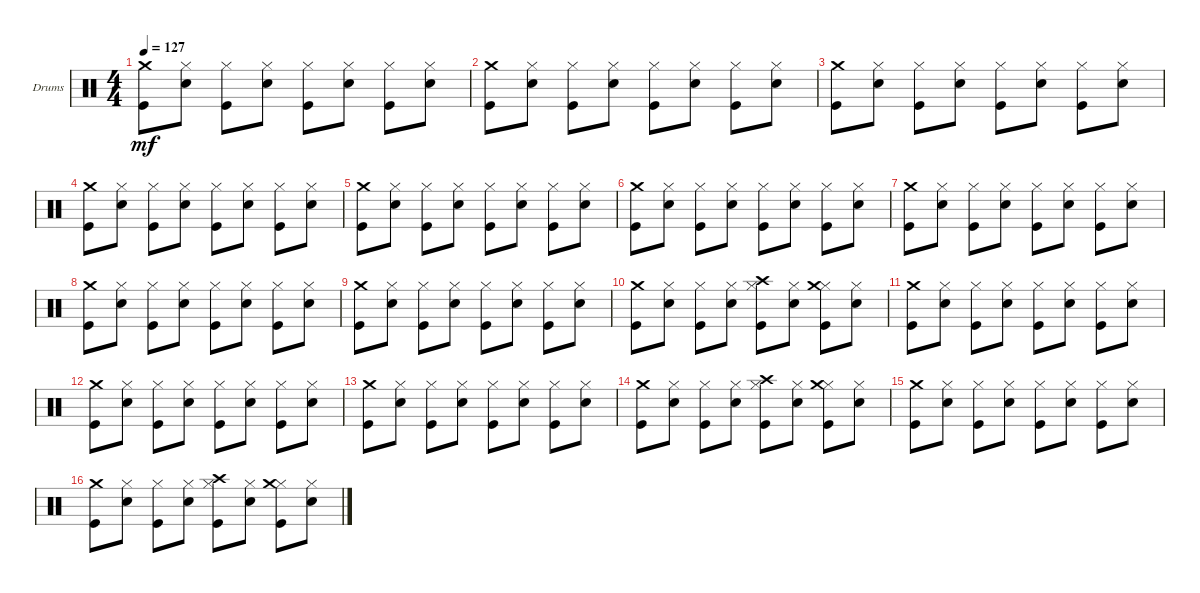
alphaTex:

\defaultSystemsLayout 4
\bracketExtendMode groupsimilarinstruments
\firstSystemTrackNameOrientation horizontal
\otherSystemsTrackNameOrientation horizontal
\track ("Е. Кулаков" "Drums") {instrument percussion}
\staff {score}
\articulation defaults
\ts (4 4)
\tempo 127
\clef neutral
\scale
0.333333
\ks c
("Kick (hit)" "Crash medium (hit)").8{dy mf} ("Snare (hit) 2" "Hi-Hat (closed)").8 ("Kick (hit)" "Hi-Hat (closed)").8 ("Snare (hit) 2" "Hi-Hat (closed)").8 ("Kick (hit)" "Hi-Hat (closed)").8 ("Snare (hit) 2" "Hi-Hat (closed)").8 ("Kick (hit)" "Hi-Hat (closed)").8 ("Snare (hit) 2" "Hi-Hat (closed)").8 |
\scale
0.333333 ("Kick (hit)" "Crash medium (hit)").8 ("Snare (hit) 2" "Hi-Hat (closed)").8 ("Kick (hit)" "Hi-Hat (closed)").8 ("Snare (hit) 2" "Hi-Hat (closed)").8 ("Kick (hit)" "Hi-Hat (closed)").8 ("Snare (hit) 2" "Hi-Hat (closed)").8 ("Kick (hit)" "Hi-Hat (closed)").8 ("Snare (hit) 2" "Hi-Hat (closed)").8 |
\scale
0.333333 ("Kick (hit)" "Crash medium (hit)").8 ("Snare (hit) 2" "Hi-Hat (closed)").8 ("Kick (hit)" "Hi-Hat (closed)").8 ("Snare (hit) 2" "Hi-Hat (closed)").8 ("Kick (hit)" "Hi-Hat (closed)").8 ("Snare (hit) 2" "Hi-Hat (closed)").8 ("Kick (hit)" "Hi-Hat (closed)").8 ("Snare (hit) 2" "Hi-Hat (closed)").8 |
\scale
0.333333 ("Kick (hit)" "Crash medium (hit)").8 ("Snare (hit) 2" "Hi-Hat (closed)").8 ("Kick (hit)" "Hi-Hat (closed)").8 ("Snare (hit) 2" "Hi-Hat (closed)").8 ("Kick (hit)" "Hi-Hat (closed)").8 ("Snare (hit) 2" "Hi-Hat (closed)").8 ("Kick (hit)" "Hi-Hat (closed)").8 ("Snare (hit) 2" "Hi-Hat (closed)").8 |
\scale
0.333333 ("Kick (hit)" "Crash medium (hit)").8 ("Snare (hit) 2" "Hi-Hat (closed)").8 ("Kick (hit)" "Hi-Hat (closed)").8 ("Snare (hit) 2" "Hi-Hat (closed)").8 ("Kick (hit)" "Hi-Hat (closed)").8 ("Snare (hit) 2" "Hi-Hat (closed)").8 ("Kick (hit)" "Hi-Hat (closed)").8 ("Snare (hit) 2" "Hi-Hat (closed)").8 |
\scale
0.333333 ("Kick (hit)" "Crash medium (hit)").8 ("Snare (hit) 2" "Hi-Hat (closed)").8 ("Kick (hit)" "Hi-Hat (closed)").8 ("Snare (hit) 2" "Hi-Hat (closed)").8 ("Kick (hit)" "Hi-Hat (closed)").8 ("Snare (hit) 2" "Hi-Hat (closed)").8 ("Kick (hit)" "Hi-Hat (closed)").8 ("Snare (hit) 2" "Hi-Hat (closed)").8 |
\scale
0.333333 ("Kick (hit)" "Crash medium (hit)").8 ("Snare (hit) 2" "Hi-Hat (closed)").8 ("Kick (hit)" "Hi-Hat (closed)").8 ("Snare (hit) 2" "Hi-Hat (closed)").8 ("Kick (hit)" "Hi-Hat (closed)").8 ("Snare (hit) 2" "Hi-Hat (closed)").8 ("Kick (hit)" "Hi-Hat (closed)").8 ("Snare (hit) 2" "Hi-Hat (closed)").8 |
\scale
0.333333 ("Kick (hit)" "Crash medium (hit)").8 ("Snare (hit) 2" "Hi-Hat (closed)").8 ("Kick (hit)" "Hi-Hat (closed)").8 ("Snare (hit) 2" "Hi-Hat (closed)").8 ("Kick (hit)" "Hi-Hat (closed)").8 ("Snare (hit) 2" "Hi-Hat (closed)").8 ("Kick (hit)" "Hi-Hat (closed)").8 ("Snare (hit) 2" "Hi-Hat (closed)").8 |
\scale
0.333333 ("Kick (hit)" "Crash medium (hit)").8 ("Snare (hit) 2" "Hi-Hat (closed)").8 ("Kick (hit)" "Hi-Hat (closed)").8 ("Snare (hit) 2" "Hi-Hat (closed)").8 ("Kick (hit)" "Hi-Hat (closed)").8 ("Snare (hit) 2" "Hi-Hat (closed)").8 ("Kick (hit)" "Hi-Hat (closed)").8 ("Snare (hit) 2" "Hi-Hat (closed)").8 |
\scale
0.333333 ("Kick (hit)" "Crash medium (hit)").8 ("Snare (hit) 2" "Hi-Hat (closed)").8 ("Kick (hit)" "Hi-Hat (closed)").8 ("Snare (hit) 2" "Hi-Hat (closed)").8 ("Kick (hit)" "Hi-Hat (closed)" "Crash high (hit)").8 ("Snare (hit) 2" "Hi-Hat (closed)").8 ("Kick (hit)" "Hi-Hat (closed)" "Crash medium (hit)").8 ("Snare (hit) 2" "Hi-Hat (closed)").8 |
\scale
0.333333 ("Kick (hit)" "Crash medium (hit)").8 ("Snare (hit) 2" "Hi-Hat (closed)").8 ("Kick (hit)" "Hi-Hat (closed)").8 ("Snare (hit) 2" "Hi-Hat (closed)").8 ("Kick (hit)" "Hi-Hat (closed)").8 ("Snare (hit) 2" "Hi-Hat (closed)").8 ("Kick (hit)" "Hi-Hat (closed)").8 ("Snare (hit) 2" "Hi-Hat (closed)").8 |
\scale
0.333333 ("Kick (hit)" "Crash medium (hit)").8 ("Snare (hit) 2" "Hi-Hat (closed)").8 ("Kick (hit)" "Hi-Hat (closed)").8 ("Snare (hit) 2" "Hi-Hat (closed)").8 ("Kick (hit)" "Hi-Hat (closed)").8 ("Snare (hit) 2" "Hi-Hat (closed)").8 ("Kick (hit)" "Hi-Hat (closed)").8 ("Snare (hit) 2" "Hi-Hat (closed)").8 |
\scale
0.333333 ("Kick (hit)" "Crash medium (hit)").8 ("Snare (hit) 2" "Hi-Hat (closed)").8 ("Kick (hit)" "Hi-Hat (closed)").8 ("Snare (hit) 2" "Hi-Hat (closed)").8 ("Kick (hit)" "Hi-Hat (closed)").8 ("Snare (hit) 2" "Hi-Hat (closed)").8 ("Kick (hit)" "Hi-Hat (closed)").8 ("Snare (hit) 2" "Hi-Hat (closed)").8 |
\scale
0.333333 ("Kick (hit)" "Crash medium (hit)").8 ("Snare (hit) 2" "Hi-Hat (closed)").8 ("Kick (hit)" "Hi-Hat (closed)").8 ("Snare (hit) 2" "Hi-Hat (closed)").8 ("Kick (hit)" "Hi-Hat (closed)" "Crash high (hit)").8 ("Snare (hit) 2" "Hi-Hat (closed)").8 ("Kick (hit)" "Hi-Hat (closed)" "Crash medium (hit)").8 ("Snare (hit) 2" "Hi-Hat (closed)").8 |
("Kick (hit)" "Crash medium (hit)").8 ("Snare (hit) 2" "Hi-Hat (closed)").8 ("Kick (hit)" "Hi-Hat (closed)").8 ("Snare (hit) 2" "Hi-Hat (closed)").8 ("Kick (hit)" "Hi-Hat (closed)").8 ("Snare (hit) 2" "Hi-Hat (closed)").8 ("Kick (hit)" "Hi-Hat (closed)").8 ("Snare (hit) 2" "Hi-Hat (closed)").8 |
("Kick (hit)" "Crash medium (hit)").8 ("Snare (hit) 2" "Hi-Hat (closed)").8 ("Kick (hit)" "Hi-Hat (closed)").8 ("Snare (hit) 2" "Hi-Hat (closed)").8 ("Kick (hit)" "Hi-Hat (closed)" "Crash high (hit)").8 ("Snare (hit) 2" "Hi-Hat (closed)").8 ("Kick (hit)" "Hi-Hat (closed)" "Crash medium (hit)").8 ("Snare (hit) 2" "Hi-Hat (closed)").8
